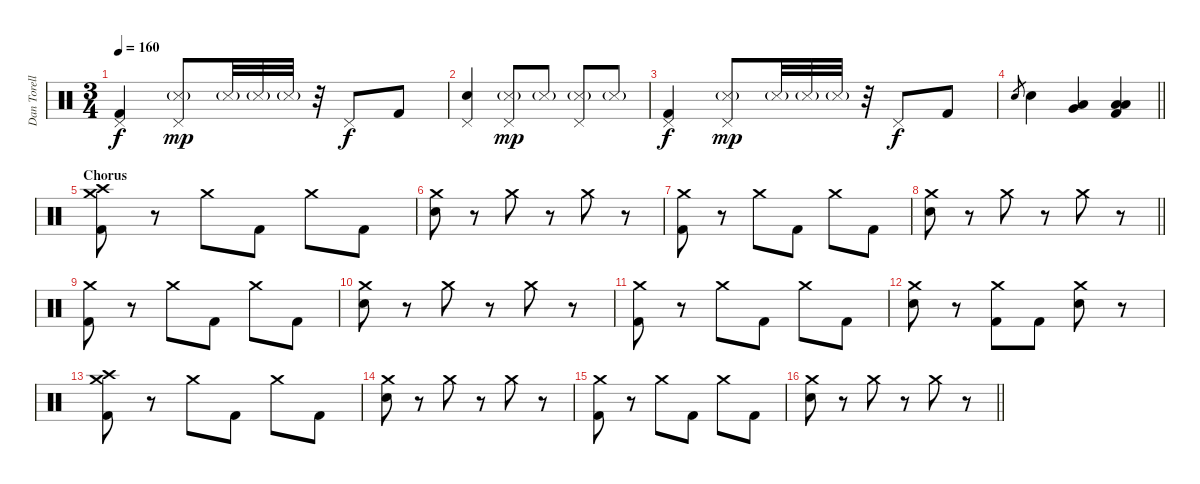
\track ("Dan Torelli - Drums" "Dan Torell") {instrument percussion}
\staff {score}
\articulation defaults
\ts (3 4)
\tempo 160
\clef neutral
\ks c
("Pedal Hi-Hat (hit)" "Kick (hit) 2").4{dy f} ("Pedal Hi-Hat (hit)" "Snare (side stick) 3"{g}).8{dy mp} "Snare (side stick) 3"{g}.32 "Snare (side stick) 3"{g}.32 "Snare (side stick) 3"{g}.32 r.32 "Pedal Hi-Hat (hit)".8{dy f} "Kick (hit) 2".8 |
("Pedal Hi-Hat (hit)" "Electric Snare (hit)").4 ("Pedal Hi-Hat (hit)" "Snare (side stick) 3"{g}).8{dy mp} "Snare (side stick) 3"{g}.8 ("Pedal Hi-Hat (hit)" "Snare (side stick) 3"{g}).8 "Snare (side stick) 3"{g}.8 |
("Pedal Hi-Hat (hit)" "Kick (hit) 2").4{dy f} ("Pedal Hi-Hat (hit)" "Snare (side stick) 3"{g}).8{dy mp} "Snare (side stick) 3"{g}.32 "Snare (side stick) 3"{g}.32 "Snare (side stick) 3"{g}.32 r.32 "Pedal Hi-Hat (hit)".8{dy f} "Kick (hit) 2".8 |
\barLineRight lightlight "Electric Snare (hit)".8{gr} "Electric Snare (hit)".4
("Low Floor Tom (hit)" "Very Low Tom (hit)").4 ("Low Floor Tom (hit)" "Low Floor Tom (hit)" "Kick (hit) 2").4 |
\section ("" "Chorus")
("Crash high (hit)" "Crash medium (hit)" "Kick (hit) 2").8 r.8 "Crash medium (hit)".8 "Kick (hit) 2".8 "Crash medium (hit)".8 "Kick (hit) 2".8 |
("Crash medium (hit)" "Electric Snare (hit)").8 r.8 "Crash medium (hit)".8 r.8 "Crash medium (hit)".8 r.8 |
("Crash medium (hit)" "Kick (hit) 2").8 r.8 "Crash medium (hit)".8 "Kick (hit) 2".8 "Crash medium (hit)".8 "Kick (hit) 2".8 |
\barLineRight lightlight
("Crash medium (hit)" "Electric Snare (hit)").8 r.8 "Crash medium (hit)".8 r.8 "Crash medium (hit)".8 r.8 |
("Crash medium (hit)" "Kick (hit) 2").8 r.8 "Crash medium (hit)".8 "Kick (hit) 2".8 "Crash medium (hit)".8 "Kick (hit) 2".8 |
("Crash medium (hit)" "Electric Snare (hit)").8 r.8 "Crash medium (hit)".8 r.8 "Crash medium (hit)".8 r.8 |
("Crash medium (hit)" "Kick (hit) 2").8 r.8 "Crash medium (hit)".8 "Kick (hit) 2".8 "Crash medium (hit)".8 "Kick (hit) 2".8 |
("Crash medium (hit)" "Electric Snare (hit)").8 r.8 ("Crash medium (hit)" "Kick (hit) 2").8 "Kick (hit) 2".8 ("Crash medium (hit)" "Electric Snare (hit)").8 r.8 |
("Crash medium (hit)" "Crash high (hit)" "Kick (hit) 2").8 r.8 "Crash medium (hit)".8 "Kick (hit) 2".8 "Crash medium (hit)".8 "Kick (hit) 2".8 |
("Crash medium (hit)" "Electric Snare (hit)").8 r.8 "Crash medium (hit)".8 r.8 "Crash medium (hit)".8 r.8 |
("Crash medium (hit)" "Kick (hit) 2").8 r.8 "Crash medium (hit)".8 "Kick (hit) 2".8 "Crash medium (hit)".8 "Kick (hit) 2".8 |
\barLineRight lightlight
("Crash medium (hit)" "Electric Snare (hit)").8 r.8 "Crash medium (hit)".8 r.8 "Crash medium (hit)".8 r.8
